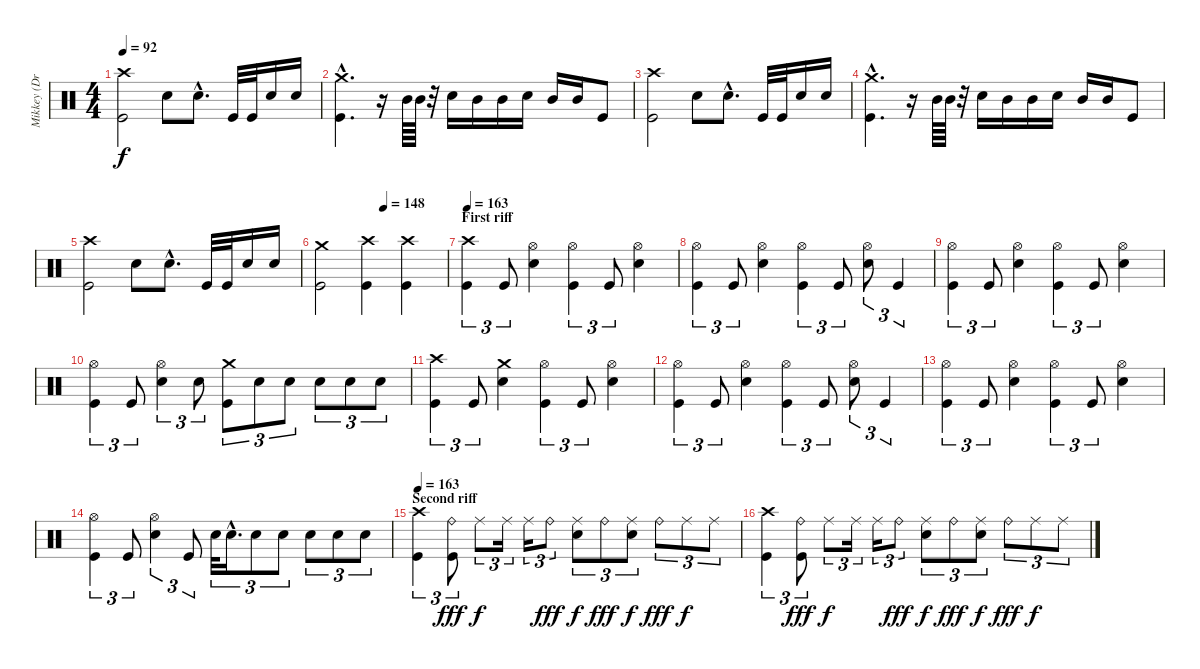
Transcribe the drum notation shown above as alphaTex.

\track ("Mikkey (Drums)" "Mikkey (Dr") {instrument percussion}
\staff {score}
\articulation defaults
\ts (4 4)
\tempo 92
\clef neutral
\ks c
("Crash high (hit)" "Kick (hit)").2{dy f} "Electric Snare (hit)".8 "Electric Snare (hit)"{hac}.8{d} "Kick (hit)".32 "Kick (hit)".32 "Electric Snare (hit)".16 "Electric Snare (hit)".16 |
("Crash medium (hit)"{hac} "Kick (hit)"{hac}).4{d} r.16 "Mid Tom (hit)".64 "Mid Tom (hit)".64 r.32 "Electric Snare (hit)".16 "Mid Tom (hit)".16 "Mid Tom (hit)".16 "Electric Snare (hit)".16 "Mid Tom (hit)".16 "Mid Tom (hit)".16 "Kick (hit)".8 |
("Crash high (hit)" "Kick (hit)").2 "Electric Snare (hit)".8 "Electric Snare (hit)"{hac}.8{d} "Kick (hit)".32 "Kick (hit)".32 "Electric Snare (hit)".16 "Electric Snare (hit)".16 |
("Crash medium (hit)"{hac} "Kick (hit)"{hac}).4{d} r.16 "Mid Tom (hit)".64 "Mid Tom (hit)".64 r.32 "Electric Snare (hit)".16 "Mid Tom (hit)".16 "Mid Tom (hit)".16 "Electric Snare (hit)".16 "Mid Tom (hit)".16 "Mid Tom (hit)".16 "Kick (hit)".8 |
("Crash high (hit)" "Kick (hit)").2 "Electric Snare (hit)".8 "Electric Snare (hit)"{hac}.8{d} "Kick (hit)".32 "Kick (hit)".32 "Electric Snare (hit)".16 "Electric Snare (hit)".16 |
\tempo (148 0.5)
("Crash medium (hit)" "Kick (hit)").2 ("Crash high (hit)" "Kick (hit)").4 ("Crash high (hit)" "Kick (hit)").4 |
\section ("" "First riff")
\tempo 163
("Crash high (hit)" "Kick (hit)").4{tu (3 2)} "Kick (hit)".8{tu (3 2)} ("Hi-Hat (open)" "Electric Snare (hit)").4 ("Hi-Hat (open)" "Kick (hit)").4{tu (3 2)} "Kick (hit)".8{tu (3 2)} ("Hi-Hat (open)" "Electric Snare (hit)").4 |
("Hi-Hat (open)" "Kick (hit)").4{tu (3 2)} "Kick (hit)".8{tu (3 2)} ("Hi-Hat (open)" "Electric Snare (hit)").4 ("Hi-Hat (open)" "Kick (hit)").4{tu (3 2)} "Kick (hit)".8{tu (3 2)} ("Hi-Hat (open)" "Electric Snare (hit)").8{tu (3 2)} "Kick (hit)".4{tu (3 2)} |
("Hi-Hat (open)" "Kick (hit)").4{tu (3 2)} "Kick (hit)".8{tu (3 2)} ("Hi-Hat (open)" "Electric Snare (hit)").4 ("Hi-Hat (open)" "Kick (hit)").4{tu (3 2)} "Kick (hit)".8{tu (3 2)} ("Hi-Hat (open)" "Electric Snare (hit)").4 |
("Hi-Hat (open)" "Kick (hit)").4{tu (3 2)} "Kick (hit)".8{tu (3 2)} ("Hi-Hat (open)" "Electric Snare (hit)").4{tu (3 2)} "Electric Snare (hit)".8{tu (3 2)} ("Crash medium (hit)" "Kick (hit)").8{tu (3 2)} "Electric Snare (hit)".8{tu (3 2)} "Electric Snare (hit)".8{tu (3 2)} "Electric Snare (hit)".8{tu (3 2)} "Electric Snare (hit)".8{tu (3 2)} "Electric Snare (hit)".8{tu (3 2)} |
("Crash high (hit)" "Kick (hit)").4{tu (3 2)} "Kick (hit)".8{tu (3 2)} ("Crash medium (hit)" "Electric Snare (hit)").4 ("Hi-Hat (open)" "Kick (hit)").4{tu (3 2)} "Kick (hit)".8{tu (3 2)} ("Hi-Hat (open)" "Electric Snare (hit)").4 |
("Hi-Hat (open)" "Kick (hit)").4{tu (3 2)} "Kick (hit)".8{tu (3 2)} ("Hi-Hat (open)" "Electric Snare (hit)").4 ("Hi-Hat (open)" "Kick (hit)").4{tu (3 2)} "Kick (hit)".8{tu (3 2)} ("Hi-Hat (open)" "Electric Snare (hit)").8{tu (3 2)} "Kick (hit)".4{tu (3 2)} |
("Hi-Hat (open)" "Kick (hit)").4{tu (3 2)} "Kick (hit)".8{tu (3 2)} ("Hi-Hat (open)" "Electric Snare (hit)").4 ("Hi-Hat (open)" "Kick (hit)").4{tu (3 2)} "Kick (hit)".8{tu (3 2)} ("Hi-Hat (open)" "Electric Snare (hit)").4 |
("Hi-Hat (open)" "Kick (hit)").4{tu (3 2)} "Kick (hit)".8{tu (3 2)} ("Hi-Hat (open)" "Electric Snare (hit)").4{tu (3 2)} "Kick (hit)".8{tu (3 2)} "Electric Snare (hit)".32{tu (3 2)} "Electric Snare (hit)"{hac}.16{d tu (3 2)} "Electric Snare (hit)".8{tu (3 2)} "Electric Snare (hit)".8{tu (3 2)} "Electric Snare (hit)".8{tu (3 2)} "Electric Snare (hit)".8{tu (3 2)} "Electric Snare (hit)".8{tu (3 2)} |
\section ("" "Second riff")
\tempo 163
("Crash high (hit)" "Kick (hit)").4{tu (3 2)} ("Ride (bell)" "Kick (hit)").8{tu (3 2) dy fff} "Ride (middle)".8{tu (3 2) dy f} "Ride (middle)".16{tu (3 2)} "Ride (middle)".16{tu (3 2)} "Ride (bell)".8{tu (3 2) dy fff} ("Ride (middle)" "Electric Snare (hit)").8{tu (3 2) dy f} "Ride (bell)".8{tu (3 2) dy fff} ("Ride (middle)" "Electric Snare (hit)").8{tu (3 2) dy f} "Ride (bell)".8{tu (3 2) dy fff} "Ride (middle)".8{tu (3 2) dy f} "Ride (middle)".8{tu (3 2)} |
("Crash high (hit)" "Kick (hit)").4{tu (3 2)} ("Ride (bell)" "Kick (hit)").8{tu (3 2) dy fff} "Ride (middle)".8{tu (3 2) dy f} "Ride (middle)".16{tu (3 2)} "Ride (middle)".16{tu (3 2)} "Ride (bell)".8{tu (3 2) dy fff} ("Ride (middle)" "Electric Snare (hit)").8{tu (3 2) dy f} "Ride (bell)".8{tu (3 2) dy fff} ("Ride (middle)" "Electric Snare (hit)").8{tu (3 2) dy f} "Ride (bell)".8{tu (3 2) dy fff} "Ride (middle)".8{tu (3 2) dy f} "Ride (middle)".8{tu (3 2)}
